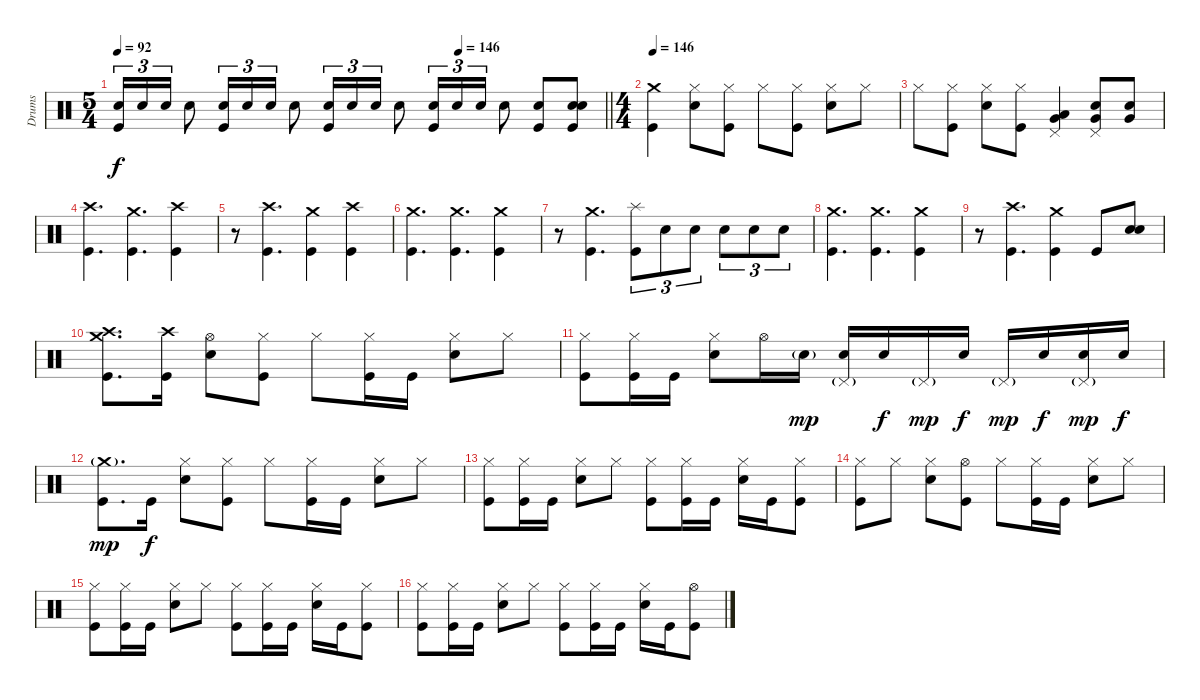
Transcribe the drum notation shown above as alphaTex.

\track ("Drums" "Drums") {instrument percussion}
\staff {score}
\articulation defaults
\ts (5 4)
\tempo 92
\tempo (146 0.7)
\clef neutral
\barLineRight lightlight
\ks c
("Electric Snare (hit)" "Kick (hit)").16{tu (3 2) dy f} "Electric Snare (hit)".16{tu (3 2)} "Electric Snare (hit)".16{tu (3 2)} "Electric Snare (hit)".8 ("Electric Snare (hit)" "Kick (hit)").16{tu (3 2)} "Electric Snare (hit)".16{tu (3 2)} "Electric Snare (hit)".16{tu (3 2)} "Electric Snare (hit)".8 ("Electric Snare (hit)" "Kick (hit)").16{tu (3 2)} "Electric Snare (hit)".16{tu (3 2)} "Electric Snare (hit)".16{tu (3 2)} "Electric Snare (hit)".8 ("Electric Snare (hit)" "Kick (hit)").16{tu (3 2)} "Electric Snare (hit)".16{tu (3 2)} "Electric Snare (hit)".16{tu (3 2)} "Electric Snare (hit)".8 ("Electric Snare (hit)" "Kick (hit)").8 ("Electric Snare (hit)" "Electric Snare (hit)" "Kick (hit)").8 |
\ts (4 4)
\tempo 146
("Crash medium (hit)" "Kick (hit)").4 ("Hi-Hat (closed)" "Electric Snare (hit)").8 ("Hi-Hat (closed)" "Kick (hit)").8 "Hi-Hat (closed)".8 ("Hi-Hat (closed)" "Kick (hit)").8 ("Hi-Hat (closed)" "Electric Snare (hit)").8 "Hi-Hat (closed)".8 |
"Hi-Hat (closed)".8 ("Hi-Hat (closed)" "Kick (hit)").8 ("Hi-Hat (closed)" "Electric Snare (hit)").8 ("Hi-Hat (closed)" "Kick (hit)").8 ("Pedal Hi-Hat (hit)" "Low Tom (hit)" "Very Low Tom (hit)").4 ("Pedal Hi-Hat (hit)" "Electric Snare (hit)" "Very Low Tom (hit)").8 ("Electric Snare (hit)" "Very Low Tom (hit)").8 |
("Crash high (hit)" "Kick (hit)").4{d} ("Crash medium (hit)" "Kick (hit)").4{d} ("Crash high (hit)" "Kick (hit)").4 |
r.8 ("Crash high (hit)" "Kick (hit)").4{d} ("Crash medium (hit)" "Kick (hit)").4 ("Crash high (hit)" "Kick (hit)").4 |
("Crash medium (hit)" "Kick (hit)").4{d} ("Crash medium (hit)" "Kick (hit)").4{d} ("Crash medium (hit)" "Kick (hit)").4 |
r.8 ("Crash medium (hit)" "Kick (hit)").4{d} ("Splash (hit)" "Kick (hit)").8{tu (3 2)} "Electric Snare (hit)".8{tu (3 2)} "Electric Snare (hit)".8{tu (3 2)} "Electric Snare (hit)".8{tu (3 2)} "Electric Snare (hit)".8{tu (3 2)} "Electric Snare (hit)".8{tu (3 2)} |
("Crash medium (hit)" "Kick (hit)").4{d} ("Crash medium (hit)" "Kick (hit)").4{d} ("Crash medium (hit)" "Kick (hit)").4 |
r.8 ("Crash high (hit)" "Kick (hit)").4{d} ("Crash medium (hit)" "Kick (hit)").4 "Kick (hit)".8 ("Electric Snare (hit)" "Electric Snare (hit)").8 |
("Crash medium (hit)" "Crash high (hit)" "Kick (hit)").8{d} ("Crash high (hit)" "Kick (hit)").16 ("Hi-Hat (open)" "Electric Snare (hit)").8 ("Hi-Hat (closed)" "Kick (hit)").8 "Hi-Hat (closed)".8 ("Hi-Hat (closed)" "Kick (hit)").16 "Kick (hit)".16 ("Hi-Hat (closed)" "Electric Snare (hit)").8 "Hi-Hat (closed)".8 |
("Hi-Hat (closed)" "Kick (hit)").8 ("Hi-Hat (closed)" "Kick (hit)").16 "Kick (hit)".16 ("Hi-Hat (closed)" "Electric Snare (hit)").8 "Hi-Hat (open)".16 "Electric Snare (hit)"{g}.16{dy mp} ("Pedal Hi-Hat (hit)"{g} "Electric Snare (hit)").16 "Electric Snare (hit)".16{dy f} "Pedal Hi-Hat (hit)"{g}.16{dy mp} "Electric Snare (hit)".16{dy f} "Pedal Hi-Hat (hit)"{g}.16{dy mp} "Electric Snare (hit)".16{dy f} ("Pedal Hi-Hat (hit)"{g} "Electric Snare (hit)").16{dy mp} "Electric Snare (hit)".16{dy f} |
("Crash medium (hit)"{g} "Kick (hit)").8{d dy mp} "Kick (hit)".16{dy f} ("Hi-Hat (closed)" "Electric Snare (hit)").8 ("Hi-Hat (closed)" "Kick (hit)").8 "Hi-Hat (closed)".8 ("Hi-Hat (closed)" "Kick (hit)").16 "Kick (hit)".16 ("Hi-Hat (closed)" "Electric Snare (hit)").8 "Hi-Hat (closed)".8 |
("Hi-Hat (closed)" "Kick (hit)").8 ("Hi-Hat (closed)" "Kick (hit)").16 "Kick (hit)".16 ("Hi-Hat (closed)" "Electric Snare (hit)").8 "Hi-Hat (closed)".8 ("Hi-Hat (closed)" "Kick (hit)").8 ("Hi-Hat (closed)" "Kick (hit)").16 "Kick (hit)".16 ("Hi-Hat (closed)" "Electric Snare (hit)").16 "Kick (hit)".16 ("Hi-Hat (closed)" "Kick (hit)").8 |
("Hi-Hat (closed)" "Kick (hit)").8 "Hi-Hat (closed)".8 ("Hi-Hat (closed)" "Electric Snare (hit)").8 ("Hi-Hat (open)" "Kick (hit)").8 "Hi-Hat (closed)".8 ("Hi-Hat (closed)" "Kick (hit)").16 "Kick (hit)".16 ("Hi-Hat (closed)" "Electric Snare (hit)").8 "Hi-Hat (closed)".8 |
("Hi-Hat (closed)" "Kick (hit)").8 ("Hi-Hat (closed)" "Kick (hit)").16 "Kick (hit)".16 ("Hi-Hat (closed)" "Electric Snare (hit)").8 "Hi-Hat (closed)".8 ("Hi-Hat (closed)" "Kick (hit)").8 ("Hi-Hat (closed)" "Kick (hit)").16 "Kick (hit)".16 ("Hi-Hat (closed)" "Electric Snare (hit)").16 "Kick (hit)".16 ("Hi-Hat (closed)" "Kick (hit)").8 |
("Hi-Hat (closed)" "Kick (hit)").8 ("Hi-Hat (closed)" "Kick (hit)").16 "Kick (hit)".16 ("Hi-Hat (closed)" "Electric Snare (hit)").8 "Hi-Hat (closed)".8 ("Hi-Hat (closed)" "Kick (hit)").8 ("Hi-Hat (closed)" "Kick (hit)").16 "Kick (hit)".16 ("Hi-Hat (closed)" "Electric Snare (hit)").16 "Kick (hit)".16 ("Hi-Hat (open)" "Kick (hit)").8
